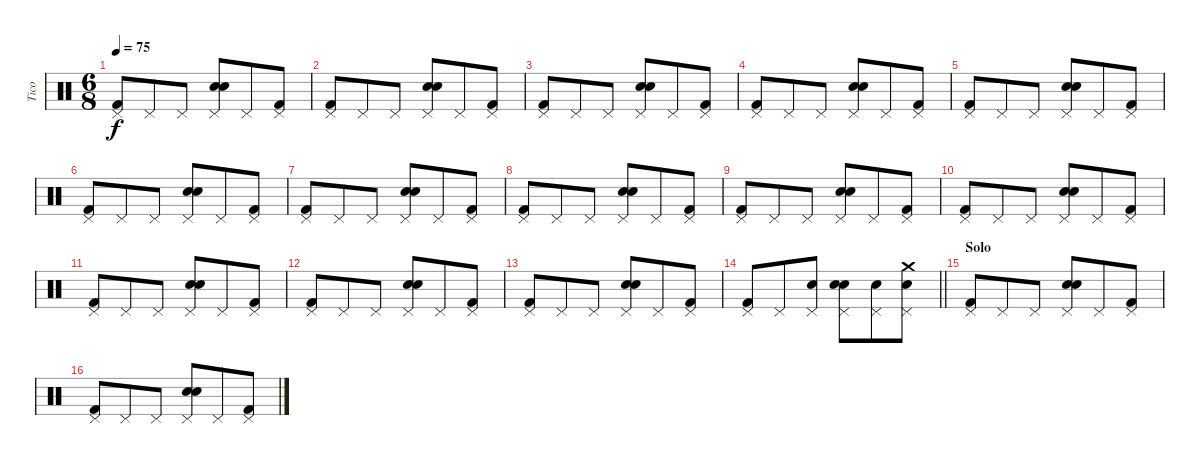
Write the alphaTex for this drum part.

\track ("Tico" "Tico") {instrument percussion}
\staff {score}
\articulation defaults
\ts (6 8)
\tempo 75
\clef neutral
\ks c
("Kick (hit) 2" "Pedal Hi-Hat (hit)").8{dy f} "Pedal Hi-Hat (hit)".8 "Pedal Hi-Hat (hit)".8 ("Electric Snare (hit)" "Snare (hit) 2" "Pedal Hi-Hat (hit)").8 "Pedal Hi-Hat (hit)".8 ("Kick (hit) 2" "Pedal Hi-Hat (hit)").8 |
("Kick (hit) 2" "Pedal Hi-Hat (hit)").8 "Pedal Hi-Hat (hit)".8 "Pedal Hi-Hat (hit)".8 ("Electric Snare (hit)" "Snare (hit) 2" "Pedal Hi-Hat (hit)").8 "Pedal Hi-Hat (hit)".8 ("Kick (hit) 2" "Pedal Hi-Hat (hit)").8 |
("Kick (hit) 2" "Pedal Hi-Hat (hit)").8 "Pedal Hi-Hat (hit)".8 "Pedal Hi-Hat (hit)".8 ("Electric Snare (hit)" "Snare (hit) 2" "Pedal Hi-Hat (hit)").8 "Pedal Hi-Hat (hit)".8 ("Kick (hit) 2" "Pedal Hi-Hat (hit)").8 |
("Kick (hit) 2" "Pedal Hi-Hat (hit)").8 "Pedal Hi-Hat (hit)".8 "Pedal Hi-Hat (hit)".8 ("Electric Snare (hit)" "Snare (hit) 2" "Pedal Hi-Hat (hit)").8 "Pedal Hi-Hat (hit)".8 ("Kick (hit) 2" "Pedal Hi-Hat (hit)").8 |
("Kick (hit) 2" "Pedal Hi-Hat (hit)").8 "Pedal Hi-Hat (hit)".8 "Pedal Hi-Hat (hit)".8 ("Electric Snare (hit)" "Snare (hit) 2" "Pedal Hi-Hat (hit)").8 "Pedal Hi-Hat (hit)".8 ("Kick (hit) 2" "Pedal Hi-Hat (hit)").8 |
("Kick (hit) 2" "Pedal Hi-Hat (hit)").8 "Pedal Hi-Hat (hit)".8 "Pedal Hi-Hat (hit)".8 ("Electric Snare (hit)" "Snare (hit) 2" "Pedal Hi-Hat (hit)").8 "Pedal Hi-Hat (hit)".8 ("Kick (hit) 2" "Pedal Hi-Hat (hit)").8 |
("Kick (hit) 2" "Pedal Hi-Hat (hit)").8 "Pedal Hi-Hat (hit)".8 "Pedal Hi-Hat (hit)".8 ("Electric Snare (hit)" "Snare (hit) 2" "Pedal Hi-Hat (hit)").8 "Pedal Hi-Hat (hit)".8 ("Kick (hit) 2" "Pedal Hi-Hat (hit)").8 |
("Kick (hit) 2" "Pedal Hi-Hat (hit)").8 "Pedal Hi-Hat (hit)".8 "Pedal Hi-Hat (hit)".8 ("Electric Snare (hit)" "Snare (hit) 2" "Pedal Hi-Hat (hit)").8 "Pedal Hi-Hat (hit)".8 ("Kick (hit) 2" "Pedal Hi-Hat (hit)").8 |
("Kick (hit) 2" "Pedal Hi-Hat (hit)").8 "Pedal Hi-Hat (hit)".8 "Pedal Hi-Hat (hit)".8 ("Electric Snare (hit)" "Snare (hit) 2" "Pedal Hi-Hat (hit)").8 "Pedal Hi-Hat (hit)".8 ("Kick (hit) 2" "Pedal Hi-Hat (hit)").8 |
("Kick (hit) 2" "Pedal Hi-Hat (hit)").8 "Pedal Hi-Hat (hit)".8 "Pedal Hi-Hat (hit)".8 ("Electric Snare (hit)" "Snare (hit) 2" "Pedal Hi-Hat (hit)").8 "Pedal Hi-Hat (hit)".8 ("Kick (hit) 2" "Pedal Hi-Hat (hit)").8 |
("Kick (hit) 2" "Pedal Hi-Hat (hit)").8 "Pedal Hi-Hat (hit)".8 "Pedal Hi-Hat (hit)".8 ("Electric Snare (hit)" "Snare (hit) 2" "Pedal Hi-Hat (hit)").8 "Pedal Hi-Hat (hit)".8 ("Kick (hit) 2" "Pedal Hi-Hat (hit)").8 |
("Kick (hit) 2" "Pedal Hi-Hat (hit)").8 "Pedal Hi-Hat (hit)".8 "Pedal Hi-Hat (hit)".8 ("Electric Snare (hit)" "Snare (hit) 2" "Pedal Hi-Hat (hit)").8 "Pedal Hi-Hat (hit)".8 ("Kick (hit) 2" "Pedal Hi-Hat (hit)").8 |
("Kick (hit) 2" "Pedal Hi-Hat (hit)").8 "Pedal Hi-Hat (hit)".8 "Pedal Hi-Hat (hit)".8 ("Electric Snare (hit)" "Snare (hit) 2" "Pedal Hi-Hat (hit)").8 "Pedal Hi-Hat (hit)".8 ("Kick (hit) 2" "Pedal Hi-Hat (hit)").8 |
\barLineRight lightlight
("Kick (hit) 2" "Pedal Hi-Hat (hit)").8 "Pedal Hi-Hat (hit)".8 ("Snare (hit) 2" "Pedal Hi-Hat (hit)").8 ("Electric Snare (hit)" "Snare (hit) 2" "Pedal Hi-Hat (hit)").8 ("Snare (hit) 2" "Pedal Hi-Hat (hit)").8 ("Crash medium (hit)" "Snare (hit) 2" "Pedal Hi-Hat (hit)").8 |
\section ("" "Solo")
("Kick (hit) 2" "Pedal Hi-Hat (hit)").8 "Pedal Hi-Hat (hit)".8 "Pedal Hi-Hat (hit)".8 ("Electric Snare (hit)" "Snare (hit) 2" "Pedal Hi-Hat (hit)").8 "Pedal Hi-Hat (hit)".8 ("Kick (hit) 2" "Pedal Hi-Hat (hit)").8 |
("Kick (hit) 2" "Pedal Hi-Hat (hit)").8 "Pedal Hi-Hat (hit)".8 "Pedal Hi-Hat (hit)".8 ("Electric Snare (hit)" "Snare (hit) 2" "Pedal Hi-Hat (hit)").8 "Pedal Hi-Hat (hit)".8 ("Kick (hit) 2" "Pedal Hi-Hat (hit)").8
